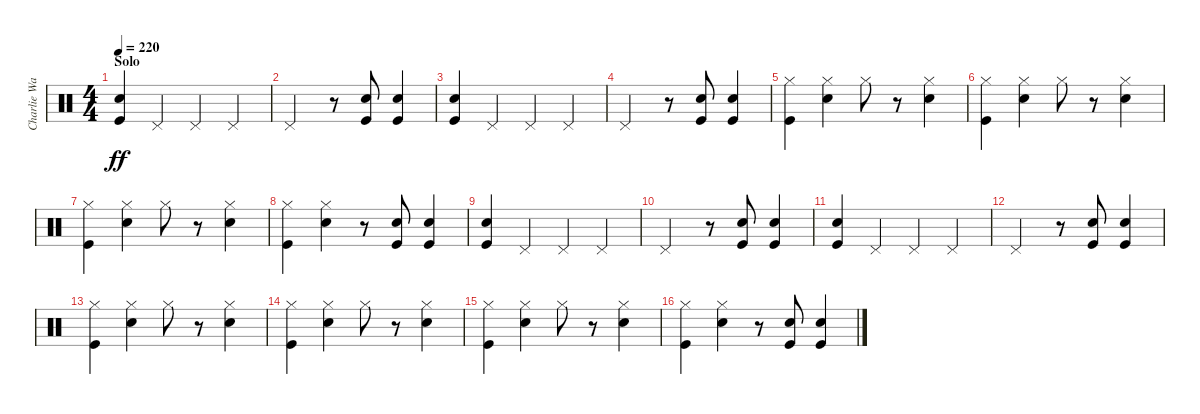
\track ("Charlie Watts" "Charlie Wa") {instrument percussion}
\staff {score}
\articulation defaults
\ts (4 4)
\section ("" "Solo")
\tempo 220
\clef neutral
\ks c
("Snare (hit) 2" "Kick (hit)").4{dy ff} "Pedal Hi-Hat (hit)".4 "Pedal Hi-Hat (hit)".4 "Pedal Hi-Hat (hit)".4 |
"Pedal Hi-Hat (hit)".2 r.8 ("Snare (hit) 2" "Kick (hit)").8 ("Snare (hit) 2" "Kick (hit)").4 |
("Snare (hit) 2" "Kick (hit)").4 "Pedal Hi-Hat (hit)".4 "Pedal Hi-Hat (hit)".4 "Pedal Hi-Hat (hit)".4 |
"Pedal Hi-Hat (hit)".2 r.8 ("Snare (hit) 2" "Kick (hit)").8 ("Snare (hit) 2" "Kick (hit)").4 |
("Hi-Hat (closed)" "Kick (hit)").4 ("Hi-Hat (closed)" "Snare (hit) 2").4 "Hi-Hat (closed)".8 r.8 ("Hi-Hat (closed)" "Snare (hit) 2").4 |
("Hi-Hat (closed)" "Kick (hit)").4 ("Hi-Hat (closed)" "Snare (hit) 2").4 "Hi-Hat (closed)".8 r.8 ("Hi-Hat (closed)" "Snare (hit) 2").4 |
("Hi-Hat (closed)" "Kick (hit)").4 ("Hi-Hat (closed)" "Snare (hit) 2").4 "Hi-Hat (closed)".8 r.8 ("Hi-Hat (closed)" "Snare (hit) 2").4 |
("Hi-Hat (closed)" "Kick (hit)").4 ("Hi-Hat (closed)" "Snare (hit) 2").4 r.8 ("Snare (hit) 2" "Kick (hit)").8 ("Snare (hit) 2" "Kick (hit)").4 |
("Snare (hit) 2" "Kick (hit)").4 "Pedal Hi-Hat (hit)".4 "Pedal Hi-Hat (hit)".4 "Pedal Hi-Hat (hit)".4 |
"Pedal Hi-Hat (hit)".2 r.8 ("Snare (hit) 2" "Kick (hit)").8 ("Snare (hit) 2" "Kick (hit)").4 |
("Snare (hit) 2" "Kick (hit)").4 "Pedal Hi-Hat (hit)".4 "Pedal Hi-Hat (hit)".4 "Pedal Hi-Hat (hit)".4 |
"Pedal Hi-Hat (hit)".2 r.8 ("Snare (hit) 2" "Kick (hit)").8 ("Snare (hit) 2" "Kick (hit)").4 |
("Hi-Hat (closed)" "Kick (hit)").4 ("Hi-Hat (closed)" "Snare (hit) 2").4 "Hi-Hat (closed)".8 r.8 ("Hi-Hat (closed)" "Snare (hit) 2").4 |
("Hi-Hat (closed)" "Kick (hit)").4 ("Hi-Hat (closed)" "Snare (hit) 2").4 "Hi-Hat (closed)".8 r.8 ("Hi-Hat (closed)" "Snare (hit) 2").4 |
("Hi-Hat (closed)" "Kick (hit)").4 ("Hi-Hat (closed)" "Snare (hit) 2").4 "Hi-Hat (closed)".8 r.8 ("Hi-Hat (closed)" "Snare (hit) 2").4 |
("Hi-Hat (closed)" "Kick (hit)").4 ("Hi-Hat (closed)" "Snare (hit) 2").4 r.8 ("Snare (hit) 2" "Kick (hit)").8 ("Snare (hit) 2" "Kick (hit)").4
